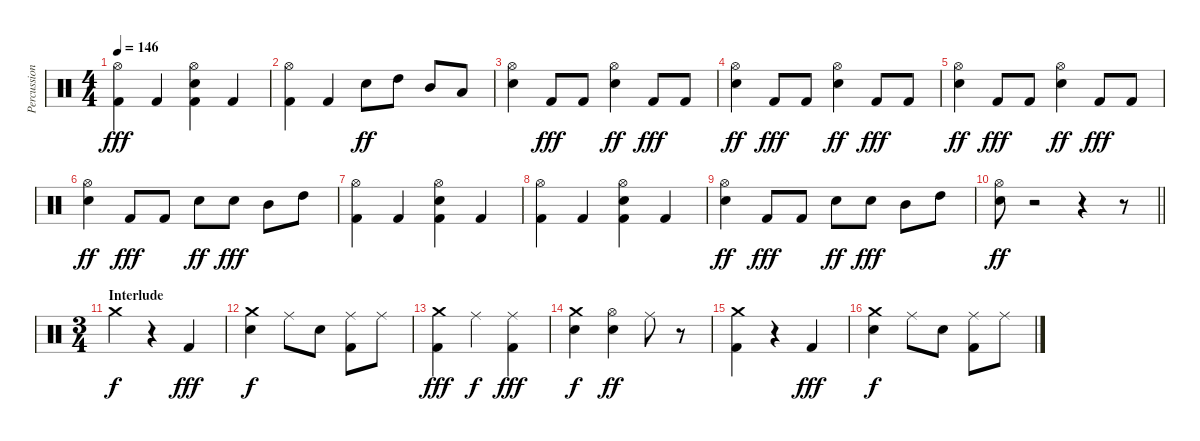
\track ("Percussions" "Percussion") {instrument percussion}
\staff {score}
\articulation defaults
\ts (4 4)
\tempo 146
\clef neutral
\ks c
("Hi-Hat (open)" "Kick (hit) 2").4{dy fff} "Kick (hit) 2".4 ("Hi-Hat (open)" "Snare (hit) 2" "Kick (hit) 2").4 "Kick (hit) 2".4 |
("Hi-Hat (open)" "Kick (hit) 2").4 "Kick (hit) 2".4 "Snare (hit) 2".8{dy ff} "High Tom (hit)".8 "Mid Tom (hit)".8 "Low Tom (hit)".8 |
("Hi-Hat (open)" "Snare (hit) 2").4 "Kick (hit) 2".8{dy fff} "Kick (hit) 2".8 ("Hi-Hat (open)" "Snare (hit) 2").4{dy ff} "Kick (hit) 2".8{dy fff} "Kick (hit) 2".8 |
("Hi-Hat (open)" "Snare (hit) 2").4{dy ff} "Kick (hit) 2".8{dy fff} "Kick (hit) 2".8 ("Hi-Hat (open)" "Snare (hit) 2").4{dy ff} "Kick (hit) 2".8{dy fff} "Kick (hit) 2".8 |
("Hi-Hat (open)" "Snare (hit) 2").4{dy ff} "Kick (hit) 2".8{dy fff} "Kick (hit) 2".8 ("Hi-Hat (open)" "Snare (hit) 2").4{dy ff} "Kick (hit) 2".8{dy fff} "Kick (hit) 2".8 |
("Hi-Hat (open)" "Snare (hit) 2").4{dy ff} "Kick (hit) 2".8{dy fff} "Kick (hit) 2".8 "Snare (hit) 2".8{dy ff} "Snare (hit) 2".8{dy fff} "Mid Tom (hit)".8 "High Tom (hit)".8 |
("Hi-Hat (open)" "Kick (hit) 2").4 "Kick (hit) 2".4 ("Hi-Hat (open)" "Snare (hit) 2" "Kick (hit) 2").4 "Kick (hit) 2".4 |
("Hi-Hat (open)" "Kick (hit) 2").4 "Kick (hit) 2".4 ("Hi-Hat (open)" "Snare (hit) 2" "Kick (hit) 2").4 "Kick (hit) 2".4 |
("Hi-Hat (open)" "Snare (hit) 2").4{dy ff} "Kick (hit) 2".8{dy fff} "Kick (hit) 2".8 "Snare (hit) 2".8{dy ff} "Snare (hit) 2".8{dy fff} "Mid Tom (hit)".8 "High Tom (hit)".8 |
\barLineRight lightlight
("Hi-Hat (open)" "Snare (hit) 2").8{dy ff} r.2 r.4 r.8 |
\ts (3 4)
\section ("" "Interlude")
"Crash medium (hit)".4{dy f} r.4 "Kick (hit) 2".4{dy fff} |
("Crash medium (hit)" "Snare (hit) 2").4{dy f} "Ride (middle)".8 "Snare (hit)".8 ("Ride (middle)" "Kick (hit) 2").8 "Ride (middle)".8 |
("Crash medium (hit)" "Kick (hit) 2").4{dy fff} "Ride (middle)".4{dy f} ("Ride (middle)" "Kick (hit) 2").4{dy fff} |
("Crash medium (hit)" "Snare (hit) 2").4{dy f} ("Hi-Hat (open)" "Snare (hit) 2").4{dy ff} "Ride (middle)".8 r.8 |
("Crash medium (hit)" "Kick (hit) 2").4 r.4 "Kick (hit) 2".4{dy fff} |
("Crash medium (hit)" "Snare (hit) 2").4{dy f} "Ride (middle)".8 "Snare (hit)".8 ("Ride (middle)" "Kick (hit) 2").8 "Ride (middle)".8
